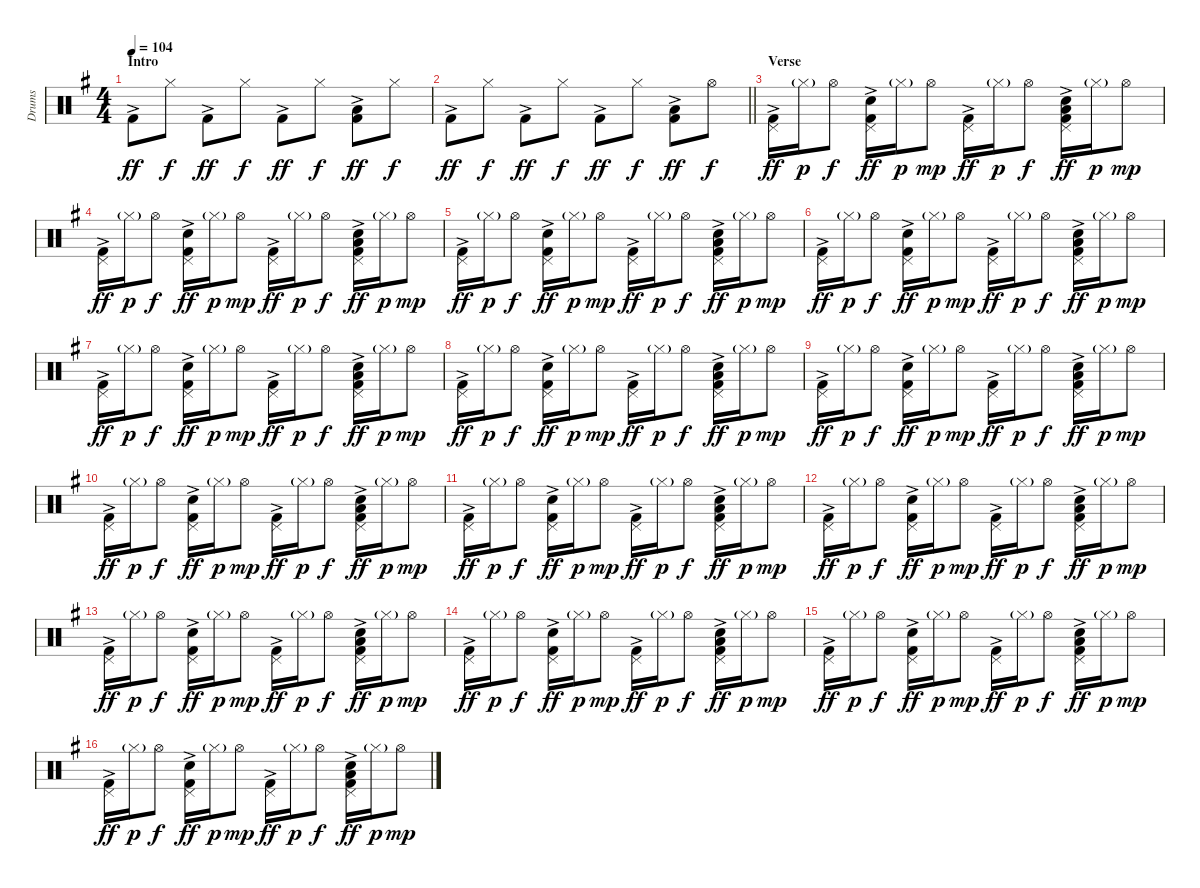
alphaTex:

\track ("Drums" "Drums") {instrument percussion}
\staff {score}
\articulation defaults
\ts (4 4)
\section ("" "Intro")
\tempo 104
\clef neutral
\ks g "Kick (hit) 2"{ac}.8{dy ff} "Hi-Hat (closed)".8{dy f} "Kick (hit) 2"{ac}.8{dy ff} "Hi-Hat (closed)".8{dy f} "Kick (hit) 2"{ac}.8{dy ff} "Hi-Hat (closed)".8{dy f}
("Low Tom (hit)" "Kick (hit) 2"{ac}).8{dy ff} "Hi-Hat (closed)".8{dy f} |
\barLineRight lightlight "Kick (hit) 2"{ac}.8{dy ff} "Hi-Hat (closed)".8{dy f} "Kick (hit) 2"{ac}.8{dy ff} "Hi-Hat (closed)".8{dy f} "Kick (hit) 2"{ac}.8{dy ff} "Hi-Hat (closed)".8{dy f}
("Low Tom (hit)" "Kick (hit) 2"{ac}).8{dy ff} "Hi-Hat (open)".8{dy f} |
\section ("" "Verse")
("Pedal Hi-Hat (hit)" "Kick (hit) 2"{ac}).16{dy ff} "Hi-Hat (closed)"{g}.16{dy p} "Hi-Hat (open)".8{dy f} ("Pedal Hi-Hat (hit)" "Snare (hit) 2"{ac} "Kick (hit) 2"{ac}).16{dy ff} "Hi-Hat (closed)"{g}.16{dy p} "Hi-Hat (open)".8{dy mp} ("Pedal Hi-Hat (hit)" "Kick (hit) 2"{ac}).16{dy ff} "Hi-Hat (closed)"{g}.16{dy p} "Hi-Hat (open)".8{dy f} ("Pedal Hi-Hat (hit)" "Snare (hit) 2"{ac} "Low Tom (hit)" "Kick (hit) 2"{ac}).16{dy ff} "Hi-Hat (closed)"{g}.16{dy p} "Hi-Hat (open)".8{dy mp} |
("Pedal Hi-Hat (hit)" "Kick (hit) 2"{ac}).16{dy ff} "Hi-Hat (closed)"{g}.16{dy p} "Hi-Hat (open)".8{dy f} ("Pedal Hi-Hat (hit)" "Snare (hit) 2"{ac} "Kick (hit) 2"{ac}).16{dy ff} "Hi-Hat (closed)"{g}.16{dy p} "Hi-Hat (open)".8{dy mp} ("Pedal Hi-Hat (hit)" "Kick (hit) 2"{ac}).16{dy ff} "Hi-Hat (closed)"{g}.16{dy p} "Hi-Hat (open)".8{dy f} ("Pedal Hi-Hat (hit)" "Snare (hit) 2"{ac} "Low Tom (hit)" "Kick (hit) 2"{ac}).16{dy ff} "Hi-Hat (closed)"{g}.16{dy p} "Hi-Hat (open)".8{dy mp} |
("Pedal Hi-Hat (hit)" "Kick (hit) 2"{ac}).16{dy ff} "Hi-Hat (closed)"{g}.16{dy p} "Hi-Hat (open)".8{dy f} ("Pedal Hi-Hat (hit)" "Snare (hit) 2"{ac} "Kick (hit) 2"{ac}).16{dy ff} "Hi-Hat (closed)"{g}.16{dy p} "Hi-Hat (open)".8{dy mp} ("Pedal Hi-Hat (hit)" "Kick (hit) 2"{ac}).16{dy ff} "Hi-Hat (closed)"{g}.16{dy p} "Hi-Hat (open)".8{dy f} ("Pedal Hi-Hat (hit)" "Snare (hit) 2"{ac} "Low Tom (hit)" "Kick (hit) 2"{ac}).16{dy ff} "Hi-Hat (closed)"{g}.16{dy p} "Hi-Hat (open)".8{dy mp} |
("Pedal Hi-Hat (hit)" "Kick (hit) 2"{ac}).16{dy ff} "Hi-Hat (closed)"{g}.16{dy p} "Hi-Hat (open)".8{dy f} ("Pedal Hi-Hat (hit)" "Snare (hit) 2"{ac} "Kick (hit) 2"{ac}).16{dy ff} "Hi-Hat (closed)"{g}.16{dy p} "Hi-Hat (open)".8{dy mp} ("Pedal Hi-Hat (hit)" "Kick (hit) 2"{ac}).16{dy ff} "Hi-Hat (closed)"{g}.16{dy p} "Hi-Hat (open)".8{dy f} ("Pedal Hi-Hat (hit)" "Snare (hit) 2"{ac} "Low Tom (hit)" "Kick (hit) 2"{ac}).16{dy ff} "Hi-Hat (closed)"{g}.16{dy p} "Hi-Hat (open)".8{dy mp} |
("Pedal Hi-Hat (hit)" "Kick (hit) 2"{ac}).16{dy ff} "Hi-Hat (closed)"{g}.16{dy p} "Hi-Hat (open)".8{dy f} ("Pedal Hi-Hat (hit)" "Snare (hit) 2"{ac} "Kick (hit) 2"{ac}).16{dy ff} "Hi-Hat (closed)"{g}.16{dy p} "Hi-Hat (open)".8{dy mp} ("Pedal Hi-Hat (hit)" "Kick (hit) 2"{ac}).16{dy ff} "Hi-Hat (closed)"{g}.16{dy p} "Hi-Hat (open)".8{dy f} ("Pedal Hi-Hat (hit)" "Snare (hit) 2"{ac} "Low Tom (hit)" "Kick (hit) 2"{ac}).16{dy ff} "Hi-Hat (closed)"{g}.16{dy p} "Hi-Hat (open)".8{dy mp} |
("Pedal Hi-Hat (hit)" "Kick (hit) 2"{ac}).16{dy ff} "Hi-Hat (closed)"{g}.16{dy p} "Hi-Hat (open)".8{dy f} ("Pedal Hi-Hat (hit)" "Snare (hit) 2"{ac} "Kick (hit) 2"{ac}).16{dy ff} "Hi-Hat (closed)"{g}.16{dy p} "Hi-Hat (open)".8{dy mp} ("Pedal Hi-Hat (hit)" "Kick (hit) 2"{ac}).16{dy ff} "Hi-Hat (closed)"{g}.16{dy p} "Hi-Hat (open)".8{dy f} ("Pedal Hi-Hat (hit)" "Snare (hit) 2"{ac} "Low Tom (hit)" "Kick (hit) 2"{ac}).16{dy ff} "Hi-Hat (closed)"{g}.16{dy p} "Hi-Hat (open)".8{dy mp} |
("Pedal Hi-Hat (hit)" "Kick (hit) 2"{ac}).16{dy ff} "Hi-Hat (closed)"{g}.16{dy p} "Hi-Hat (open)".8{dy f} ("Pedal Hi-Hat (hit)" "Snare (hit) 2"{ac} "Kick (hit) 2"{ac}).16{dy ff} "Hi-Hat (closed)"{g}.16{dy p} "Hi-Hat (open)".8{dy mp} ("Pedal Hi-Hat (hit)" "Kick (hit) 2"{ac}).16{dy ff} "Hi-Hat (closed)"{g}.16{dy p} "Hi-Hat (open)".8{dy f} ("Pedal Hi-Hat (hit)" "Snare (hit) 2"{ac} "Low Tom (hit)" "Kick (hit) 2"{ac}).16{dy ff} "Hi-Hat (closed)"{g}.16{dy p} "Hi-Hat (open)".8{dy mp} |
("Pedal Hi-Hat (hit)" "Kick (hit) 2"{ac}).16{dy ff} "Hi-Hat (closed)"{g}.16{dy p} "Hi-Hat (open)".8{dy f} ("Pedal Hi-Hat (hit)" "Snare (hit) 2"{ac} "Kick (hit) 2"{ac}).16{dy ff} "Hi-Hat (closed)"{g}.16{dy p} "Hi-Hat (open)".8{dy mp} ("Pedal Hi-Hat (hit)" "Kick (hit) 2"{ac}).16{dy ff} "Hi-Hat (closed)"{g}.16{dy p} "Hi-Hat (open)".8{dy f} ("Pedal Hi-Hat (hit)" "Snare (hit) 2"{ac} "Low Tom (hit)" "Kick (hit) 2"{ac}).16{dy ff} "Hi-Hat (closed)"{g}.16{dy p} "Hi-Hat (open)".8{dy mp} |
("Pedal Hi-Hat (hit)" "Kick (hit) 2"{ac}).16{dy ff} "Hi-Hat (closed)"{g}.16{dy p} "Hi-Hat (open)".8{dy f} ("Pedal Hi-Hat (hit)" "Snare (hit) 2"{ac} "Kick (hit) 2"{ac}).16{dy ff} "Hi-Hat (closed)"{g}.16{dy p} "Hi-Hat (open)".8{dy mp} ("Pedal Hi-Hat (hit)" "Kick (hit) 2"{ac}).16{dy ff} "Hi-Hat (closed)"{g}.16{dy p} "Hi-Hat (open)".8{dy f} ("Pedal Hi-Hat (hit)" "Snare (hit) 2"{ac} "Low Tom (hit)" "Kick (hit) 2"{ac}).16{dy ff} "Hi-Hat (closed)"{g}.16{dy p} "Hi-Hat (open)".8{dy mp} |
("Pedal Hi-Hat (hit)" "Kick (hit) 2"{ac}).16{dy ff} "Hi-Hat (closed)"{g}.16{dy p} "Hi-Hat (open)".8{dy f} ("Pedal Hi-Hat (hit)" "Snare (hit) 2"{ac} "Kick (hit) 2"{ac}).16{dy ff} "Hi-Hat (closed)"{g}.16{dy p} "Hi-Hat (open)".8{dy mp} ("Pedal Hi-Hat (hit)" "Kick (hit) 2"{ac}).16{dy ff} "Hi-Hat (closed)"{g}.16{dy p} "Hi-Hat (open)".8{dy f} ("Pedal Hi-Hat (hit)" "Snare (hit) 2"{ac} "Low Tom (hit)" "Kick (hit) 2"{ac}).16{dy ff} "Hi-Hat (closed)"{g}.16{dy p} "Hi-Hat (open)".8{dy mp} |
("Pedal Hi-Hat (hit)" "Kick (hit) 2"{ac}).16{dy ff} "Hi-Hat (closed)"{g}.16{dy p} "Hi-Hat (open)".8{dy f} ("Pedal Hi-Hat (hit)" "Snare (hit) 2"{ac} "Kick (hit) 2"{ac}).16{dy ff} "Hi-Hat (closed)"{g}.16{dy p} "Hi-Hat (open)".8{dy mp} ("Pedal Hi-Hat (hit)" "Kick (hit) 2"{ac}).16{dy ff} "Hi-Hat (closed)"{g}.16{dy p} "Hi-Hat (open)".8{dy f} ("Pedal Hi-Hat (hit)" "Snare (hit) 2"{ac} "Low Tom (hit)" "Kick (hit) 2"{ac}).16{dy ff} "Hi-Hat (closed)"{g}.16{dy p} "Hi-Hat (open)".8{dy mp} |
("Pedal Hi-Hat (hit)" "Kick (hit) 2"{ac}).16{dy ff} "Hi-Hat (closed)"{g}.16{dy p} "Hi-Hat (open)".8{dy f} ("Pedal Hi-Hat (hit)" "Snare (hit) 2"{ac} "Kick (hit) 2"{ac}).16{dy ff} "Hi-Hat (closed)"{g}.16{dy p} "Hi-Hat (open)".8{dy mp} ("Pedal Hi-Hat (hit)" "Kick (hit) 2"{ac}).16{dy ff} "Hi-Hat (closed)"{g}.16{dy p} "Hi-Hat (open)".8{dy f} ("Pedal Hi-Hat (hit)" "Snare (hit) 2"{ac} "Low Tom (hit)" "Kick (hit) 2"{ac}).16{dy ff} "Hi-Hat (closed)"{g}.16{dy p} "Hi-Hat (open)".8{dy mp} |
("Pedal Hi-Hat (hit)" "Kick (hit) 2"{ac}).16{dy ff} "Hi-Hat (closed)"{g}.16{dy p} "Hi-Hat (open)".8{dy f} ("Pedal Hi-Hat (hit)" "Snare (hit) 2"{ac} "Kick (hit) 2"{ac}).16{dy ff} "Hi-Hat (closed)"{g}.16{dy p} "Hi-Hat (open)".8{dy mp} ("Pedal Hi-Hat (hit)" "Kick (hit) 2"{ac}).16{dy ff} "Hi-Hat (closed)"{g}.16{dy p} "Hi-Hat (open)".8{dy f} ("Pedal Hi-Hat (hit)" "Snare (hit) 2"{ac} "Low Tom (hit)" "Kick (hit) 2"{ac}).16{dy ff} "Hi-Hat (closed)"{g}.16{dy p} "Hi-Hat (open)".8{dy mp} |
("Pedal Hi-Hat (hit)" "Kick (hit) 2"{ac}).16{dy ff} "Hi-Hat (closed)"{g}.16{dy p} "Hi-Hat (open)".8{dy f} ("Pedal Hi-Hat (hit)" "Snare (hit) 2"{ac} "Kick (hit) 2"{ac}).16{dy ff} "Hi-Hat (closed)"{g}.16{dy p} "Hi-Hat (open)".8{dy mp} ("Pedal Hi-Hat (hit)" "Kick (hit) 2"{ac}).16{dy ff} "Hi-Hat (closed)"{g}.16{dy p} "Hi-Hat (open)".8{dy f} ("Pedal Hi-Hat (hit)" "Snare (hit) 2"{ac} "Low Tom (hit)" "Kick (hit) 2"{ac}).16{dy ff} "Hi-Hat (closed)"{g}.16{dy p} "Hi-Hat (open)".8{dy mp}
